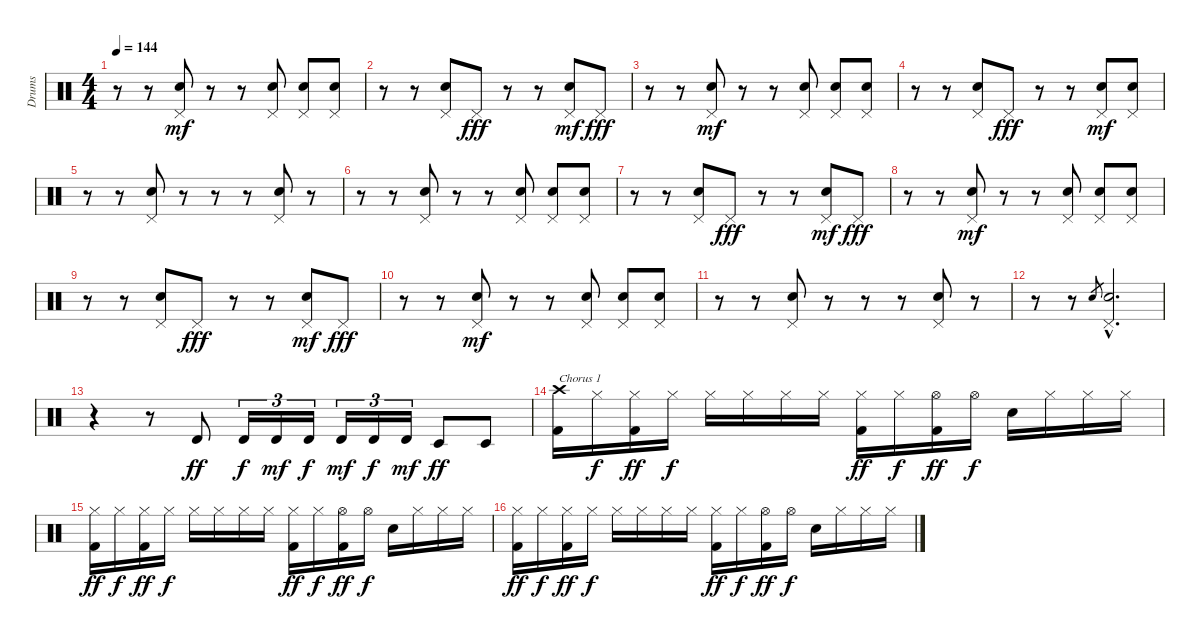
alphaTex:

\track ("Drums" "Drums") {instrument percussion}
\staff {score}
\articulation defaults
\ts (4 4)
\tempo 144
\clef neutral
\ks c
r.8{dy fff} r.8 ("Pedal Hi-Hat (hit)" "Snare (hit) 2").8{dy mf} r.8 r.8 ("Pedal Hi-Hat (hit)" "Snare (hit) 2").8 ("Pedal Hi-Hat (hit)" "Snare (hit) 2").8 ("Pedal Hi-Hat (hit)" "Snare (hit) 2").8 |
r.8 r.8 ("Pedal Hi-Hat (hit)" "Snare (hit) 2").8 "Pedal Hi-Hat (hit)".8{dy fff} r.8 r.8 ("Pedal Hi-Hat (hit)" "Snare (hit) 2").8{dy mf} "Pedal Hi-Hat (hit)".8{dy fff} |
r.8 r.8 ("Pedal Hi-Hat (hit)" "Snare (hit) 2").8{dy mf} r.8 r.8 ("Pedal Hi-Hat (hit)" "Snare (hit) 2").8 ("Pedal Hi-Hat (hit)" "Snare (hit) 2").8 ("Pedal Hi-Hat (hit)" "Snare (hit) 2").8 |
r.8 r.8 ("Pedal Hi-Hat (hit)" "Snare (hit) 2").8 "Pedal Hi-Hat (hit)".8{dy fff} r.8 r.8 ("Pedal Hi-Hat (hit)" "Snare (hit) 2").8{dy mf} ("Pedal Hi-Hat (hit)" "Snare (hit) 2").8 |
r.8 r.8 ("Pedal Hi-Hat (hit)" "Snare (hit) 2").8 r.8 r.8 r.8 ("Pedal Hi-Hat (hit)" "Snare (hit) 2").8 r.8 |
r.8 r.8 ("Pedal Hi-Hat (hit)" "Snare (hit) 2").8 r.8 r.8 ("Pedal Hi-Hat (hit)" "Snare (hit) 2").8 ("Pedal Hi-Hat (hit)" "Snare (hit) 2").8 ("Pedal Hi-Hat (hit)" "Snare (hit) 2").8 |
r.8 r.8 ("Pedal Hi-Hat (hit)" "Snare (hit) 2").8 "Pedal Hi-Hat (hit)".8{dy fff} r.8 r.8 ("Pedal Hi-Hat (hit)" "Snare (hit) 2").8{dy mf} "Pedal Hi-Hat (hit)".8{dy fff} |
r.8 r.8 ("Pedal Hi-Hat (hit)" "Snare (hit) 2").8{dy mf} r.8 r.8 ("Pedal Hi-Hat (hit)" "Snare (hit) 2").8 ("Pedal Hi-Hat (hit)" "Snare (hit) 2").8 ("Pedal Hi-Hat (hit)" "Snare (hit) 2").8 |
r.8 r.8 ("Pedal Hi-Hat (hit)" "Snare (hit) 2").8 "Pedal Hi-Hat (hit)".8{dy fff} r.8 r.8 ("Pedal Hi-Hat (hit)" "Snare (hit) 2").8{dy mf} "Pedal Hi-Hat (hit)".8{dy fff} |
r.8 r.8 ("Pedal Hi-Hat (hit)" "Snare (hit) 2").8{dy mf} r.8 r.8 ("Pedal Hi-Hat (hit)" "Snare (hit) 2").8 ("Pedal Hi-Hat (hit)" "Snare (hit) 2").8 ("Pedal Hi-Hat (hit)" "Snare (hit) 2").8 |
r.8 r.8 ("Pedal Hi-Hat (hit)" "Snare (hit) 2").8 r.8 r.8 r.8 ("Pedal Hi-Hat (hit)" "Snare (hit) 2").8 r.8 |
r.8 r.8 "Snare (hit) 2".8{gr} ("Pedal Hi-Hat (hit)"{hac} "Snare (hit) 2"{hac}).2{d} |
r.4 r.8 "Timbale high (hit)".8{dy ff} "Timbale high (hit)".16{tu (3 2) dy f} "Timbale high (hit)".16{tu (3 2) dy mf} "Timbale high (hit)".16{tu (3 2) dy f} "Timbale high (hit)".16{tu (3 2) dy mf} "Timbale high (hit)".16{tu (3 2) dy f} "Timbale high (hit)".16{tu (3 2) dy mf} "Timbale low (hit)".8{dy ff} "Timbale low (hit)".8 |
("Crash high (hit)" "Kick (hit) 2").16{txt "Chorus 1"} "Hi-Hat (closed)".16{dy f} ("Hi-Hat (closed)" "Kick (hit) 2").16{dy ff} "Hi-Hat (closed)".16{dy f} "Hi-Hat (closed)".16 "Hi-Hat (closed)".16 "Hi-Hat (closed)".16 "Hi-Hat (closed)".16 ("Hi-Hat (closed)" "Kick (hit) 2").16{dy ff} "Hi-Hat (closed)".16{dy f} ("Hi-Hat (open)" "Kick (hit) 2").16{dy ff} "Hi-Hat (open)".16{dy f} "Snare (hit) 2".16 "Hi-Hat (closed)".16 "Hi-Hat (closed)".16 "Hi-Hat (closed)".16 |
("Hi-Hat (closed)" "Kick (hit) 2").16{dy ff} "Hi-Hat (closed)".16{dy f} ("Hi-Hat (closed)" "Kick (hit) 2").16{dy ff} "Hi-Hat (closed)".16{dy f} "Hi-Hat (closed)".16 "Hi-Hat (closed)".16 "Hi-Hat (closed)".16 "Hi-Hat (closed)".16 ("Hi-Hat (closed)" "Kick (hit) 2").16{dy ff} "Hi-Hat (closed)".16{dy f} ("Hi-Hat (open)" "Kick (hit) 2").16{dy ff} "Hi-Hat (open)".16{dy f} "Snare (hit) 2".16 "Hi-Hat (closed)".16 "Hi-Hat (closed)".16 "Hi-Hat (closed)".16 |
("Hi-Hat (closed)" "Kick (hit) 2").16{dy ff} "Hi-Hat (closed)".16{dy f} ("Hi-Hat (closed)" "Kick (hit) 2").16{dy ff} "Hi-Hat (closed)".16{dy f} "Hi-Hat (closed)".16 "Hi-Hat (closed)".16 "Hi-Hat (closed)".16 "Hi-Hat (closed)".16 ("Hi-Hat (closed)" "Kick (hit) 2").16{dy ff} "Hi-Hat (closed)".16{dy f} ("Hi-Hat (open)" "Kick (hit) 2").16{dy ff} "Hi-Hat (open)".16{dy f} "Snare (hit) 2".16 "Hi-Hat (closed)".16 "Hi-Hat (closed)".16 "Hi-Hat (closed)".16
